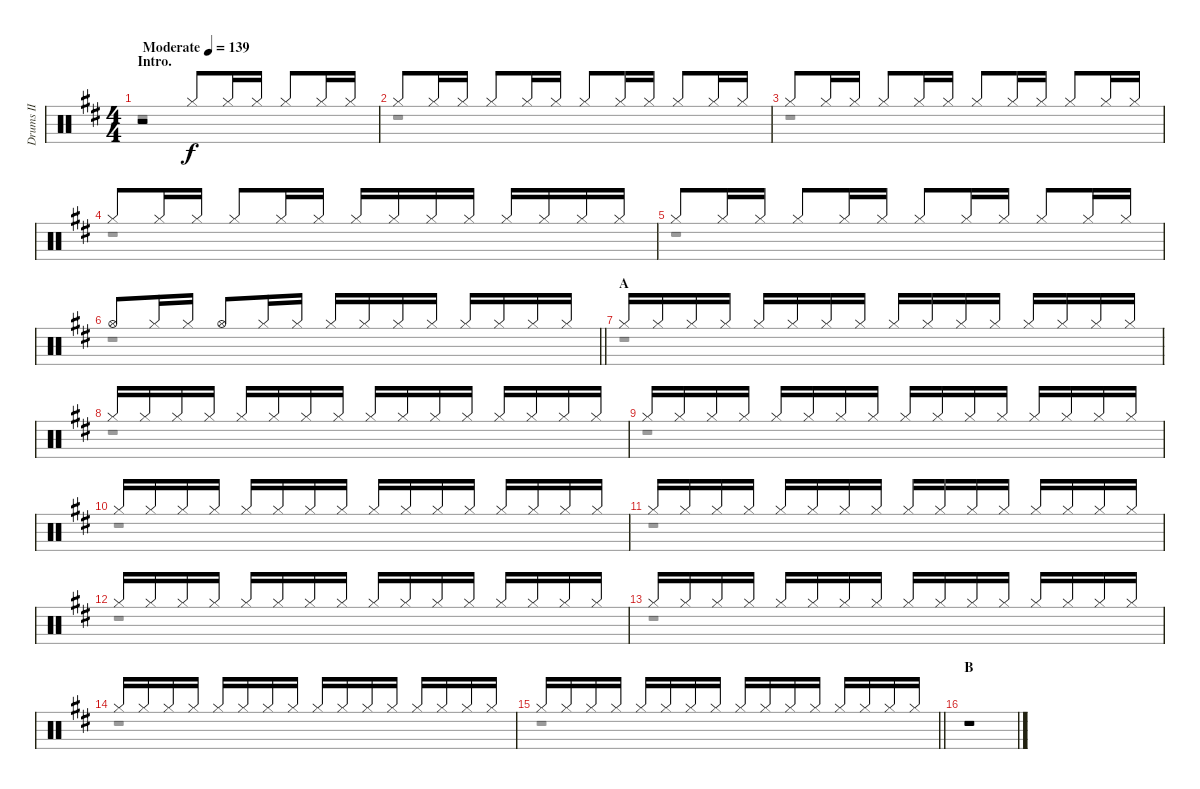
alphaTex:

\track ("Drums II" "Drums II") {instrument percussion}
\staff {score}
\articulation defaults
\voice
\ts (4 4)
\section ("" "Intro.")
\tempo (139 "Moderate")
\clef neutral
\ks d
r.2{dy f volume 0} "Hi-Hat (closed)".8{volume 14} "Hi-Hat (closed)".16 "Hi-Hat (closed)".16 "Hi-Hat (closed)".8 "Hi-Hat (closed)".16 "Hi-Hat (closed)".16 |
"Hi-Hat (closed)".8 "Hi-Hat (closed)".16 "Hi-Hat (closed)".16 "Hi-Hat (closed)".8 "Hi-Hat (closed)".16 "Hi-Hat (closed)".16 "Hi-Hat (closed)".8 "Hi-Hat (closed)".16 "Hi-Hat (closed)".16 "Hi-Hat (closed)".8 "Hi-Hat (closed)".16 "Hi-Hat (closed)".16 |
"Hi-Hat (closed)".8 "Hi-Hat (closed)".16 "Hi-Hat (closed)".16 "Hi-Hat (closed)".8 "Hi-Hat (closed)".16 "Hi-Hat (closed)".16 "Hi-Hat (closed)".8 "Hi-Hat (closed)".16 "Hi-Hat (closed)".16 "Hi-Hat (closed)".8 "Hi-Hat (closed)".16 "Hi-Hat (closed)".16 |
"Hi-Hat (closed)".8 "Hi-Hat (closed)".16 "Hi-Hat (closed)".16 "Hi-Hat (closed)".8 "Hi-Hat (closed)".16 "Hi-Hat (closed)".16 "Hi-Hat (closed)".16 "Hi-Hat (closed)".16 "Hi-Hat (closed)".16 "Hi-Hat (closed)".16 "Hi-Hat (closed)".16 "Hi-Hat (closed)".16 "Hi-Hat (closed)".16 "Hi-Hat (closed)".16 |
"Hi-Hat (closed)".8 "Hi-Hat (closed)".16 "Hi-Hat (closed)".16 "Hi-Hat (closed)".8 "Hi-Hat (closed)".16 "Hi-Hat (closed)".16 "Hi-Hat (closed)".8 "Hi-Hat (closed)".16 "Hi-Hat (closed)".16 "Hi-Hat (closed)".8 "Hi-Hat (closed)".16 "Hi-Hat (closed)".16 |
\barLineRight lightlight "Hi-Hat (open)".8 "Hi-Hat (closed)".16 "Hi-Hat (closed)".16 "Hi-Hat (open)".8 "Hi-Hat (closed)".16 "Hi-Hat (closed)".16 "Hi-Hat (closed)".16 "Hi-Hat (closed)".16 "Hi-Hat (closed)".16 "Hi-Hat (closed)".16 "Hi-Hat (closed)".16 "Hi-Hat (closed)".16 "Hi-Hat (closed)".16 "Hi-Hat (closed)".16
|
\section ("" "A")
"Hi-Hat (closed)".16 "Hi-Hat (closed)".16 "Hi-Hat (closed)".16 "Hi-Hat (closed)".16 "Hi-Hat (closed)".16 "Hi-Hat (closed)".16 "Hi-Hat (closed)".16 "Hi-Hat (closed)".16 "Hi-Hat (closed)".16 "Hi-Hat (closed)".16 "Hi-Hat (closed)".16 "Hi-Hat (closed)".16 "Hi-Hat (closed)".16 "Hi-Hat (closed)".16 "Hi-Hat (closed)".16 "Hi-Hat (closed)".16 |
"Hi-Hat (closed)".16 "Hi-Hat (closed)".16 "Hi-Hat (closed)".16 "Hi-Hat (closed)".16 "Hi-Hat (closed)".16 "Hi-Hat (closed)".16 "Hi-Hat (closed)".16 "Hi-Hat (closed)".16 "Hi-Hat (closed)".16 "Hi-Hat (closed)".16 "Hi-Hat (closed)".16 "Hi-Hat (closed)".16 "Hi-Hat (closed)".16 "Hi-Hat (closed)".16 "Hi-Hat (closed)".16 "Hi-Hat (closed)".16 |
"Hi-Hat (closed)".16 "Hi-Hat (closed)".16 "Hi-Hat (closed)".16 "Hi-Hat (closed)".16 "Hi-Hat (closed)".16 "Hi-Hat (closed)".16 "Hi-Hat (closed)".16 "Hi-Hat (closed)".16 "Hi-Hat (closed)".16 "Hi-Hat (closed)".16 "Hi-Hat (closed)".16 "Hi-Hat (closed)".16 "Hi-Hat (closed)".16 "Hi-Hat (closed)".16 "Hi-Hat (closed)".16 "Hi-Hat (closed)".16 |
"Hi-Hat (closed)".16 "Hi-Hat (closed)".16 "Hi-Hat (closed)".16 "Hi-Hat (closed)".16 "Hi-Hat (closed)".16 "Hi-Hat (closed)".16 "Hi-Hat (closed)".16 "Hi-Hat (closed)".16 "Hi-Hat (closed)".16 "Hi-Hat (closed)".16 "Hi-Hat (closed)".16 "Hi-Hat (closed)".16 "Hi-Hat (closed)".16 "Hi-Hat (closed)".16 "Hi-Hat (closed)".16 "Hi-Hat (closed)".16 |
"Hi-Hat (closed)".16 "Hi-Hat (closed)".16 "Hi-Hat (closed)".16 "Hi-Hat (closed)".16 "Hi-Hat (closed)".16 "Hi-Hat (closed)".16 "Hi-Hat (closed)".16 "Hi-Hat (closed)".16 "Hi-Hat (closed)".16 "Hi-Hat (closed)".16 "Hi-Hat (closed)".16 "Hi-Hat (closed)".16 "Hi-Hat (closed)".16 "Hi-Hat (closed)".16 "Hi-Hat (closed)".16 "Hi-Hat (closed)".16 |
"Hi-Hat (closed)".16 "Hi-Hat (closed)".16 "Hi-Hat (closed)".16 "Hi-Hat (closed)".16 "Hi-Hat (closed)".16 "Hi-Hat (closed)".16 "Hi-Hat (closed)".16 "Hi-Hat (closed)".16 "Hi-Hat (closed)".16 "Hi-Hat (closed)".16 "Hi-Hat (closed)".16 "Hi-Hat (closed)".16 "Hi-Hat (closed)".16 "Hi-Hat (closed)".16 "Hi-Hat (closed)".16 "Hi-Hat (closed)".16 |
"Hi-Hat (closed)".16 "Hi-Hat (closed)".16 "Hi-Hat (closed)".16 "Hi-Hat (closed)".16 "Hi-Hat (closed)".16 "Hi-Hat (closed)".16 "Hi-Hat (closed)".16 "Hi-Hat (closed)".16 "Hi-Hat (closed)".16 "Hi-Hat (closed)".16 "Hi-Hat (closed)".16 "Hi-Hat (closed)".16 "Hi-Hat (closed)".16 "Hi-Hat (closed)".16 "Hi-Hat (closed)".16 "Hi-Hat (closed)".16 |
"Hi-Hat (closed)".16 "Hi-Hat (closed)".16 "Hi-Hat (closed)".16 "Hi-Hat (closed)".16 "Hi-Hat (closed)".16 "Hi-Hat (closed)".16 "Hi-Hat (closed)".16 "Hi-Hat (closed)".16 "Hi-Hat (closed)".16 "Hi-Hat (closed)".16 "Hi-Hat (closed)".16 "Hi-Hat (closed)".16 "Hi-Hat (closed)".16 "Hi-Hat (closed)".16 "Hi-Hat (closed)".16 "Hi-Hat (closed)".16 |
\barLineRight lightlight "Hi-Hat (closed)".16{volume 0} "Hi-Hat (closed)".16 "Hi-Hat (closed)".16 "Hi-Hat (closed)".16 "Hi-Hat (closed)".16 "Hi-Hat (closed)".16 "Hi-Hat (closed)".16 "Hi-Hat (closed)".16 "Hi-Hat (closed)".16 "Hi-Hat (closed)".16 "Hi-Hat (closed)".16 "Hi-Hat (closed)".16 "Hi-Hat (closed)".16 "Hi-Hat (closed)".16 "Hi-Hat (closed)".16 "Hi-Hat (closed)".16
|
\section ("" "B")
r.1{volume 14}
\voice
\clef neutral
\ottava regular
\simile none
\ks d
r.1{dy f} |
r.1 |
r.1 |
r.1 |
r.1 |
\barLineRight lightlight
r.1 |
r.1 |
r.1 |
r.1 |
r.1 |
r.1 |
r.1 |
r.1 |
r.1 |
\barLineRight lightlight
r.1 |
r.1
